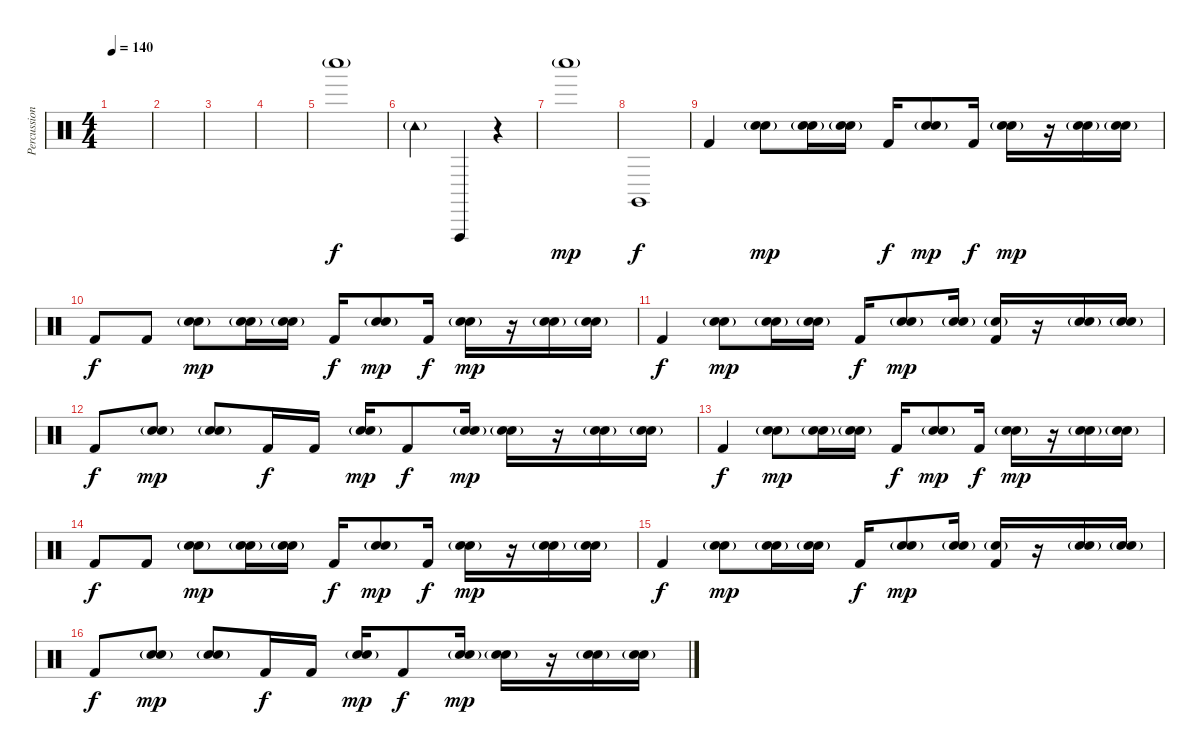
\track ("Percussion" "Percussion") {instrument percussion}
\staff {score}
\articulation defaults
\ts (4 4)
\tempo 140
\clef neutral
\ks c
|
|
|
|
"Whistle low (hit)"{g}.1 |
"Tambourine (hit)"{g}.2 "Vibraslap (hit)".4{dy f} r.4 |
"Whistle low (hit)"{g}.1{dy mp} |
"Claves (hit)".1{dy f} |
"Kick (hit) 2".4 ("Snare (hit) 2"{g} "Electric Snare (hit)").8{dy mp} ("Snare (hit) 2"{g} "Electric Snare (hit)").16 ("Snare (hit) 2"{g} "Electric Snare (hit)").16 "Kick (hit) 2".16{dy f} ("Electric Snare (hit)" "Snare (hit) 2"{g}).8{dy mp} "Kick (hit) 2".16{dy f} ("Electric Snare (hit)" "Snare (hit) 2"{g}).16{dy mp} r.16 ("Electric Snare (hit)" "Snare (hit) 2"{g}).16 ("Electric Snare (hit)" "Snare (hit) 2"{g}).16 |
"Kick (hit) 2".8{dy f} "Kick (hit) 2".8 ("Snare (hit) 2"{g} "Electric Snare (hit)").8{dy mp} ("Snare (hit) 2"{g} "Electric Snare (hit)").16 ("Snare (hit) 2"{g} "Electric Snare (hit)").16 "Kick (hit) 2".16{dy f} ("Electric Snare (hit)" "Snare (hit) 2"{g}).8{dy mp} "Kick (hit) 2".16{dy f} ("Electric Snare (hit)" "Snare (hit) 2"{g}).16{dy mp} r.16 ("Electric Snare (hit)" "Snare (hit) 2"{g}).16 ("Electric Snare (hit)" "Snare (hit) 2"{g}).16 |
"Kick (hit) 2".4{dy f} ("Snare (hit) 2"{g} "Electric Snare (hit)").8{dy mp} ("Snare (hit) 2"{g} "Electric Snare (hit)").16 ("Snare (hit) 2"{g} "Electric Snare (hit)").16 "Kick (hit) 2".16{dy f} ("Electric Snare (hit)" "Snare (hit) 2"{g}).8{dy mp} ("Snare (hit) 2"{g} "Electric Snare (hit)").16 ("Snare (hit) 2"{g} "Kick (hit) 2").16 r.16 ("Electric Snare (hit)" "Snare (hit) 2"{g}).16 ("Electric Snare (hit)" "Snare (hit) 2"{g}).16 |
"Kick (hit) 2".8{dy f} ("Snare (hit) 2"{g} "Electric Snare (hit)").8{dy mp} ("Snare (hit) 2"{g} "Electric Snare (hit)").8 "Kick (hit) 2".16{dy f} "Kick (hit) 2".16 ("Snare (hit) 2"{g} "Electric Snare (hit)").16{dy mp} "Kick (hit) 2".8{dy f} ("Snare (hit) 2"{g} "Electric Snare (hit)").16{dy mp} ("Snare (hit) 2"{g} "Electric Snare (hit)").16 r.16 ("Electric Snare (hit)" "Snare (hit) 2"{g}).16 ("Electric Snare (hit)" "Snare (hit) 2"{g}).16 |
"Kick (hit) 2".4{dy f} ("Snare (hit) 2"{g} "Electric Snare (hit)").8{dy mp} ("Snare (hit) 2"{g} "Electric Snare (hit)").16 ("Snare (hit) 2"{g} "Electric Snare (hit)").16 "Kick (hit) 2".16{dy f} ("Electric Snare (hit)" "Snare (hit) 2"{g}).8{dy mp} "Kick (hit) 2".16{dy f} ("Electric Snare (hit)" "Snare (hit) 2"{g}).16{dy mp} r.16 ("Electric Snare (hit)" "Snare (hit) 2"{g}).16 ("Electric Snare (hit)" "Snare (hit) 2"{g}).16 |
"Kick (hit) 2".8{dy f} "Kick (hit) 2".8 ("Snare (hit) 2"{g} "Electric Snare (hit)").8{dy mp} ("Snare (hit) 2"{g} "Electric Snare (hit)").16 ("Snare (hit) 2"{g} "Electric Snare (hit)").16 "Kick (hit) 2".16{dy f} ("Electric Snare (hit)" "Snare (hit) 2"{g}).8{dy mp} "Kick (hit) 2".16{dy f} ("Electric Snare (hit)" "Snare (hit) 2"{g}).16{dy mp} r.16 ("Electric Snare (hit)" "Snare (hit) 2"{g}).16 ("Electric Snare (hit)" "Snare (hit) 2"{g}).16 |
"Kick (hit) 2".4{dy f} ("Snare (hit) 2"{g} "Electric Snare (hit)").8{dy mp} ("Snare (hit) 2"{g} "Electric Snare (hit)").16 ("Snare (hit) 2"{g} "Electric Snare (hit)").16 "Kick (hit) 2".16{dy f} ("Electric Snare (hit)" "Snare (hit) 2"{g}).8{dy mp} ("Snare (hit) 2"{g} "Electric Snare (hit)").16 ("Snare (hit) 2"{g} "Kick (hit) 2").16 r.16 ("Electric Snare (hit)" "Snare (hit) 2"{g}).16 ("Electric Snare (hit)" "Snare (hit) 2"{g}).16 |
"Kick (hit) 2".8{dy f} ("Snare (hit) 2"{g} "Electric Snare (hit)").8{dy mp} ("Snare (hit) 2"{g} "Electric Snare (hit)").8 "Kick (hit) 2".16{dy f} "Kick (hit) 2".16 ("Snare (hit) 2"{g} "Electric Snare (hit)").16{dy mp} "Kick (hit) 2".8{dy f} ("Snare (hit) 2"{g} "Electric Snare (hit)").16{dy mp} ("Snare (hit) 2"{g} "Electric Snare (hit)").16 r.16 ("Electric Snare (hit)" "Snare (hit) 2"{g}).16 ("Electric Snare (hit)" "Snare (hit) 2"{g}).16
